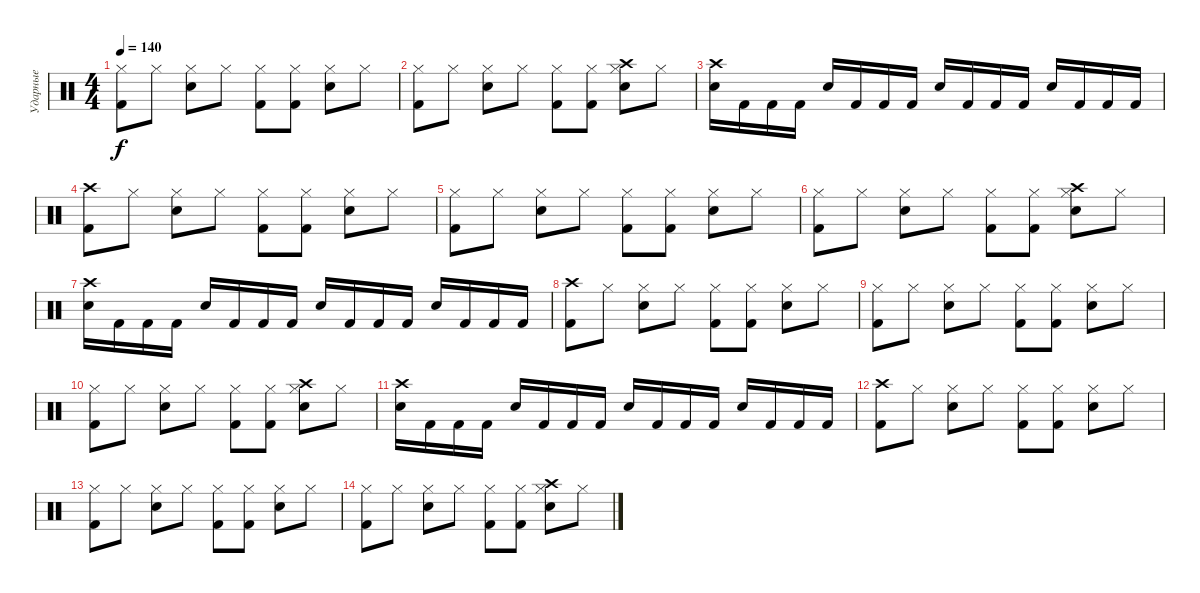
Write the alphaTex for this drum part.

\track ("Ударные" "Ударные") {instrument percussion}
\staff {score}
\articulation defaults
\ts (4 4)
\tempo 140
\clef neutral
\ks c
("Hi-Hat (closed)" "Kick (hit) 2").8{dy f} "Hi-Hat (closed)".8 ("Hi-Hat (closed)" "Snare (hit) 2").8 "Hi-Hat (closed)".8 ("Kick (hit) 2" "Hi-Hat (closed)").8 ("Kick (hit) 2" "Hi-Hat (closed)").8 ("Snare (hit) 2" "Hi-Hat (closed)").8 "Hi-Hat (closed)".8 |
("Hi-Hat (closed)" "Kick (hit) 2").8 "Hi-Hat (closed)".8 ("Hi-Hat (closed)" "Snare (hit) 2").8 "Hi-Hat (closed)".8 ("Kick (hit) 2" "Hi-Hat (closed)").8 ("Kick (hit) 2" "Hi-Hat (closed)").8 ("Crash high (hit)" "Snare (hit) 2" "Hi-Hat (closed)").8 "Hi-Hat (closed)".8 |
("Crash high (hit)" "Snare (hit) 2").16 "Kick (hit) 2".16 "Kick (hit) 2".16 "Kick (hit) 2".16 "Snare (hit) 2".16 "Kick (hit) 2".16 "Kick (hit) 2".16 "Kick (hit) 2".16 "Snare (hit) 2".16 "Kick (hit) 2".16 "Kick (hit) 2".16 "Kick (hit) 2".16 "Snare (hit) 2".16 "Kick (hit) 2".16 "Kick (hit) 2".16 "Kick (hit) 2".16 |
("Crash high (hit)" "Kick (hit) 2").8 "Hi-Hat (closed)".8 ("Hi-Hat (closed)" "Snare (hit) 2").8 "Hi-Hat (closed)".8 ("Kick (hit) 2" "Hi-Hat (closed)").8 ("Kick (hit) 2" "Hi-Hat (closed)").8 ("Snare (hit) 2" "Hi-Hat (closed)").8 "Hi-Hat (closed)".8 |
("Hi-Hat (closed)" "Kick (hit) 2").8 "Hi-Hat (closed)".8 ("Hi-Hat (closed)" "Snare (hit) 2").8 "Hi-Hat (closed)".8 ("Kick (hit) 2" "Hi-Hat (closed)").8 ("Kick (hit) 2" "Hi-Hat (closed)").8 ("Snare (hit) 2" "Hi-Hat (closed)").8 "Hi-Hat (closed)".8 |
("Hi-Hat (closed)" "Kick (hit) 2").8 "Hi-Hat (closed)".8 ("Hi-Hat (closed)" "Snare (hit) 2").8 "Hi-Hat (closed)".8 ("Kick (hit) 2" "Hi-Hat (closed)").8 ("Kick (hit) 2" "Hi-Hat (closed)").8 ("Crash high (hit)" "Snare (hit) 2" "Hi-Hat (closed)").8 "Hi-Hat (closed)".8 |
("Crash high (hit)" "Snare (hit) 2").16 "Kick (hit) 2".16 "Kick (hit) 2".16 "Kick (hit) 2".16 "Snare (hit) 2".16 "Kick (hit) 2".16 "Kick (hit) 2".16 "Kick (hit) 2".16 "Snare (hit) 2".16 "Kick (hit) 2".16 "Kick (hit) 2".16 "Kick (hit) 2".16 "Snare (hit) 2".16 "Kick (hit) 2".16 "Kick (hit) 2".16 "Kick (hit) 2".16 |
("Crash high (hit)" "Kick (hit) 2").8 "Hi-Hat (closed)".8 ("Hi-Hat (closed)" "Snare (hit) 2").8 "Hi-Hat (closed)".8 ("Kick (hit) 2" "Hi-Hat (closed)").8 ("Kick (hit) 2" "Hi-Hat (closed)").8 ("Snare (hit) 2" "Hi-Hat (closed)").8 "Hi-Hat (closed)".8 |
("Hi-Hat (closed)" "Kick (hit) 2").8 "Hi-Hat (closed)".8 ("Hi-Hat (closed)" "Snare (hit) 2").8 "Hi-Hat (closed)".8 ("Kick (hit) 2" "Hi-Hat (closed)").8 ("Kick (hit) 2" "Hi-Hat (closed)").8 ("Snare (hit) 2" "Hi-Hat (closed)").8 "Hi-Hat (closed)".8 |
("Hi-Hat (closed)" "Kick (hit) 2").8 "Hi-Hat (closed)".8 ("Hi-Hat (closed)" "Snare (hit) 2").8 "Hi-Hat (closed)".8 ("Kick (hit) 2" "Hi-Hat (closed)").8 ("Kick (hit) 2" "Hi-Hat (closed)").8 ("Crash high (hit)" "Snare (hit) 2" "Hi-Hat (closed)").8 "Hi-Hat (closed)".8 |
("Crash high (hit)" "Snare (hit) 2").16 "Kick (hit) 2".16 "Kick (hit) 2".16 "Kick (hit) 2".16 "Snare (hit) 2".16 "Kick (hit) 2".16 "Kick (hit) 2".16 "Kick (hit) 2".16 "Snare (hit) 2".16 "Kick (hit) 2".16 "Kick (hit) 2".16 "Kick (hit) 2".16 "Snare (hit) 2".16 "Kick (hit) 2".16 "Kick (hit) 2".16 "Kick (hit) 2".16 |
("Crash high (hit)" "Kick (hit) 2").8 "Hi-Hat (closed)".8 ("Hi-Hat (closed)" "Snare (hit) 2").8 "Hi-Hat (closed)".8 ("Kick (hit) 2" "Hi-Hat (closed)").8 ("Kick (hit) 2" "Hi-Hat (closed)").8 ("Snare (hit) 2" "Hi-Hat (closed)").8 "Hi-Hat (closed)".8 |
("Hi-Hat (closed)" "Kick (hit) 2").8 "Hi-Hat (closed)".8 ("Hi-Hat (closed)" "Snare (hit) 2").8 "Hi-Hat (closed)".8 ("Kick (hit) 2" "Hi-Hat (closed)").8 ("Kick (hit) 2" "Hi-Hat (closed)").8 ("Snare (hit) 2" "Hi-Hat (closed)").8 "Hi-Hat (closed)".8 |
("Hi-Hat (closed)" "Kick (hit) 2").8 "Hi-Hat (closed)".8 ("Hi-Hat (closed)" "Snare (hit) 2").8 "Hi-Hat (closed)".8 ("Kick (hit) 2" "Hi-Hat (closed)").8 ("Kick (hit) 2" "Hi-Hat (closed)").8 ("Crash high (hit)" "Snare (hit) 2" "Hi-Hat (closed)").8 "Hi-Hat (closed)".8
